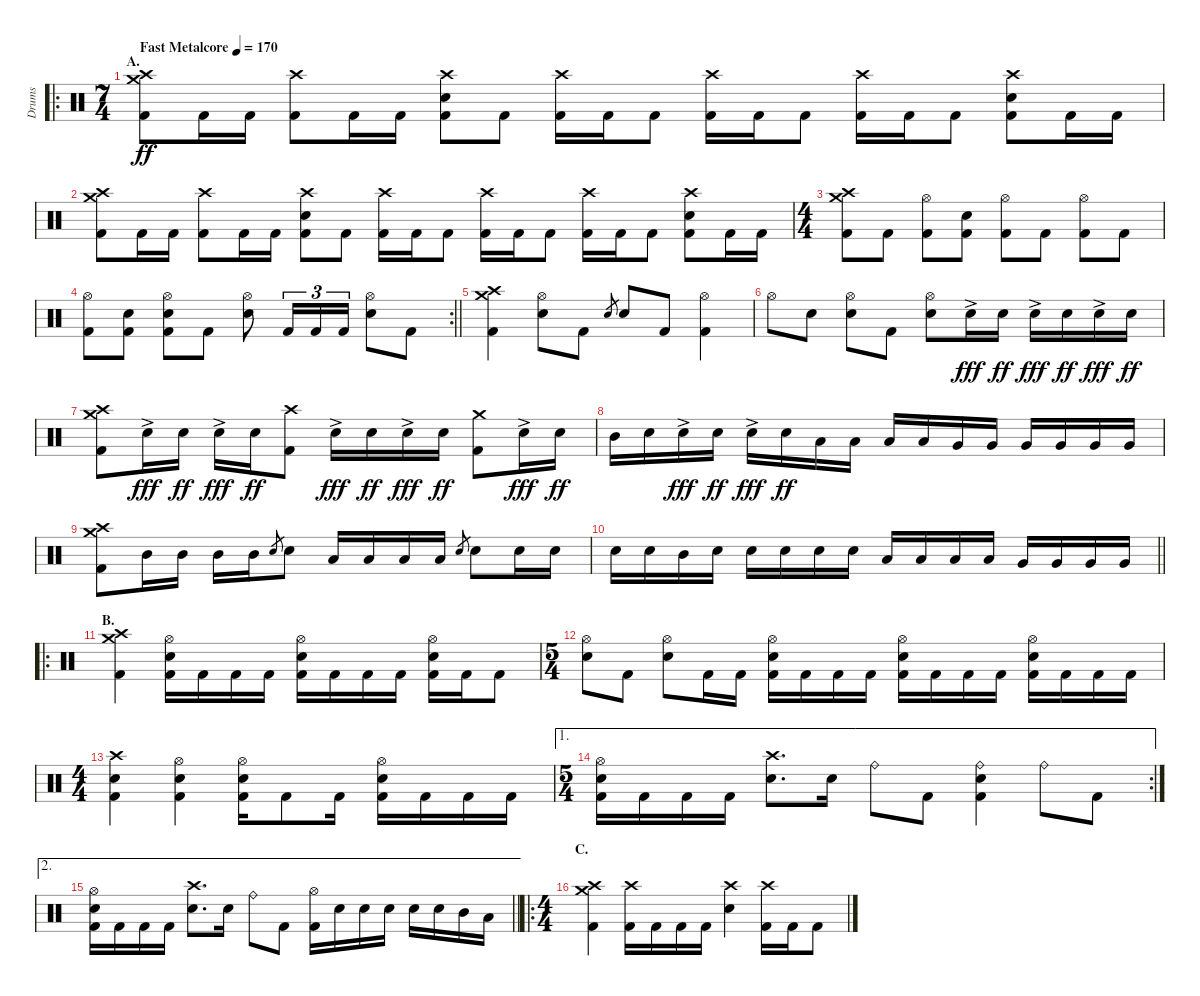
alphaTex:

\track ("Drums" "Drums") {instrument percussion}
\staff {score}
\articulation defaults
\ro
\ts (7 4)
\section ("" "A.")
\tempo (170 "Fast Metalcore")
\clef neutral
\ks c
("Crash medium (hit)" "Crash high (hit)" "Kick (hit) 2").8{dy ff} "Kick (hit) 2".16 "Kick (hit) 2".16 ("Crash high (hit)" "Kick (hit) 2").8 "Kick (hit) 2".16 "Kick (hit) 2".16 ("Crash high (hit)" "Electric Snare (hit)" "Kick (hit) 2").8 "Kick (hit) 2".8 ("Crash high (hit)" "Kick (hit) 2").16 "Kick (hit) 2".16 "Kick (hit) 2".8 ("Crash high (hit)" "Kick (hit) 2").16 "Kick (hit) 2".16 "Kick (hit) 2".8 ("Crash high (hit)" "Kick (hit) 2").16 "Kick (hit) 2".16 "Kick (hit) 2".8 ("Crash high (hit)" "Electric Snare (hit)" "Kick (hit) 2").8 "Kick (hit) 2".16 "Kick (hit) 2".16 |
("Crash medium (hit)" "Crash high (hit)" "Kick (hit) 2").8 "Kick (hit) 2".16 "Kick (hit) 2".16 ("Crash high (hit)" "Kick (hit) 2").8 "Kick (hit) 2".16 "Kick (hit) 2".16 ("Crash high (hit)" "Electric Snare (hit)" "Kick (hit) 2").8 "Kick (hit) 2".8 ("Crash high (hit)" "Kick (hit) 2").16 "Kick (hit) 2".16 "Kick (hit) 2".8 ("Crash high (hit)" "Kick (hit) 2").16 "Kick (hit) 2".16 "Kick (hit) 2".8 ("Crash high (hit)" "Kick (hit) 2").16 "Kick (hit) 2".16 "Kick (hit) 2".8 ("Crash high (hit)" "Electric Snare (hit)" "Kick (hit) 2").8 "Kick (hit) 2".16 "Kick (hit) 2".16 |
\ts (4 4)
("Crash medium (hit)" "Crash high (hit)" "Kick (hit) 2").8 "Kick (hit) 2".8 ("Hi-Hat (open)" "Kick (hit) 2").8 ("Electric Snare (hit)" "Kick (hit) 2").8 ("Hi-Hat (open)" "Kick (hit) 2").8 "Kick (hit) 2".8 ("Hi-Hat (open)" "Kick (hit) 2").8 "Kick (hit) 2".8 |
\rc 2
\barLineRight lightlight
("Hi-Hat (open)" "Kick (hit) 2").8 ("Electric Snare (hit)" "Kick (hit) 2").8 ("Hi-Hat (open)" "Electric Snare (hit)" "Kick (hit) 2").8 "Kick (hit) 2".8 ("Hi-Hat (open)" "Electric Snare (hit)").8 "Kick (hit) 2".16{tu (3 2)} "Kick (hit) 2".16{tu (3 2)} "Kick (hit) 2".16{tu (3 2)} ("Hi-Hat (open)" "Electric Snare (hit)").8 "Kick (hit) 2".8 |
\section ("" "")
("Crash medium (hit)" "Crash high (hit)" "Kick (hit) 2").4 ("Hi-Hat (open)" "Electric Snare (hit)").8 "Kick (hit) 2".8 "Electric Snare (hit)".8{gr} "Electric Snare (hit)".8 "Kick (hit) 2".8 ("Hi-Hat (open)" "Kick (hit) 2").4 |
"Hi-Hat (open)".8 "Electric Snare (hit)".8 ("Hi-Hat (open)" "Electric Snare (hit)").8 "Kick (hit) 2".8 ("Hi-Hat (open)" "Electric Snare (hit)").8 "Electric Snare (hit)"{ac}.16{dy fff} "Electric Snare (hit)".16{dy ff} "Electric Snare (hit)"{ac}.16{dy fff} "Electric Snare (hit)".16{dy ff} "Electric Snare (hit)"{ac}.16{dy fff} "Electric Snare (hit)".16{dy ff} |
("Crash medium (hit)" "Crash high (hit)" "Kick (hit) 2").8 "Electric Snare (hit)"{ac}.16{dy fff} "Electric Snare (hit)".16{dy ff} "Electric Snare (hit)"{ac}.16{dy fff} "Electric Snare (hit)".16{dy ff} ("Crash high (hit)" "Kick (hit) 2").8 "Electric Snare (hit)"{ac}.16{dy fff} "Electric Snare (hit)".16{dy ff} "Electric Snare (hit)"{ac}.16{dy fff} "Electric Snare (hit)".16{dy ff} ("Crash medium (hit)" "Kick (hit) 2").8 "Electric Snare (hit)"{ac}.16{dy fff} "Electric Snare (hit)".16{dy ff} |
"Mid Tom (hit)".16 "Electric Snare (hit)".16 "Electric Snare (hit)"{ac}.16{dy fff} "Electric Snare (hit)".16{dy ff} "Electric Snare (hit)"{ac}.16{dy fff} "Electric Snare (hit)".16{dy ff} "Low Tom (hit)".16 "Low Tom (hit)".16 "Low Tom (hit)".16 "Low Tom (hit)".16 "Very Low Tom (hit)".16 "Very Low Tom (hit)".16 "Very Low Tom (hit)".16 "Very Low Tom (hit)".16 "Very Low Tom (hit)".16 "Very Low Tom (hit)".16 |
("Crash medium (hit)" "Crash high (hit)" "Kick (hit) 2").8 "Mid Tom (hit)".16 "Mid Tom (hit)".16 "Mid Tom (hit)".16 "Mid Tom (hit)".16 "Electric Snare (hit)".8{gr} "Electric Snare (hit)".8 "Low Tom (hit)".16 "Low Tom (hit)".16 "Low Tom (hit)".16 "Low Tom (hit)".16 "Electric Snare (hit)".8{gr} "Electric Snare (hit)".8 "Electric Snare (hit)".16 "Electric Snare (hit)".16 |
\barLineRight lightlight "Electric Snare (hit)".16 "Electric Snare (hit)".16 "Mid Tom (hit)".16 "Electric Snare (hit)".16 "Electric Snare (hit)".16 "Electric Snare (hit)".16 "Electric Snare (hit)".16 "Electric Snare (hit)".16 "Low Tom (hit)".16 "Low Tom (hit)".16 "Low Tom (hit)".16 "Low Tom (hit)".16 "Very Low Tom (hit)".16 "Very Low Tom (hit)".16 "Very Low Tom (hit)".16 "Very Low Tom (hit)".16
|
\ro
\section ("" "B.")
("Crash medium (hit)" "Crash high (hit)" "Kick (hit) 2").4 ("Hi-Hat (open)" "Electric Snare (hit)" "Kick (hit) 2").16 "Kick (hit) 2".16 "Kick (hit) 2".16 "Kick (hit) 2".16 ("Hi-Hat (open)" "Electric Snare (hit)" "Kick (hit) 2").16 "Kick (hit) 2".16 "Kick (hit) 2".16 "Kick (hit) 2".16 ("Hi-Hat (open)" "Electric Snare (hit)" "Kick (hit) 2").16 "Kick (hit) 2".16 "Kick (hit) 2".8 |
\ts (5 4)
("Hi-Hat (open)" "Electric Snare (hit)").8 "Kick (hit) 2".8 ("Hi-Hat (open)" "Electric Snare (hit)").8 "Kick (hit) 2".16 "Kick (hit) 2".16 ("Hi-Hat (open)" "Electric Snare (hit)" "Kick (hit) 2").16 "Kick (hit) 2".16 "Kick (hit) 2".16 "Kick (hit) 2".16 ("Hi-Hat (open)" "Electric Snare (hit)" "Kick (hit) 2").16 "Kick (hit) 2".16 "Kick (hit) 2".16 "Kick (hit) 2".16 ("Hi-Hat (open)" "Electric Snare (hit)" "Kick (hit) 2").16 "Kick (hit) 2".16 "Kick (hit) 2".16 "Kick (hit) 2".16 |
\ts (4 4)
("Crash high (hit)" "Electric Snare (hit)" "Kick (hit) 2").4 ("Hi-Hat (open)" "Electric Snare (hit)" "Kick (hit) 2").4 ("Hi-Hat (open)" "Electric Snare (hit)" "Kick (hit) 2").16 "Kick (hit) 2".8 "Kick (hit) 2".16 ("Hi-Hat (open)" "Electric Snare (hit)" "Kick (hit) 2").16 "Kick (hit) 2".16 "Kick (hit) 2".16 "Kick (hit) 2".16 |
\ae 1
\rc 2
\ts (5 4)
("Hi-Hat (open)" "Electric Snare (hit)" "Kick (hit) 2").16 "Kick (hit) 2".16 "Kick (hit) 2".16 "Kick (hit) 2".16 ("Crash high (hit)" "Electric Snare (hit)").8{d} "Electric Snare (hit)".16 "Ride (bell)".8 "Kick (hit) 2".8 ("Ride (bell)" "Electric Snare (hit)" "Kick (hit) 2").4 "Ride (bell)".8 "Kick (hit) 2".8 |
\ae 2
\barLineRight lightlight
("Hi-Hat (open)" "Electric Snare (hit)" "Kick (hit) 2").16 "Kick (hit) 2".16 "Kick (hit) 2".16 "Kick (hit) 2".16 ("Crash high (hit)" "Electric Snare (hit)").8{d} "Electric Snare (hit)".16 "Ride (bell)".8 "Kick (hit) 2".8 ("Hi-Hat (open)" "Kick (hit) 2").16 "Electric Snare (hit)".16 "Electric Snare (hit)".16 "Electric Snare (hit)".16 "Electric Snare (hit)".16 "Electric Snare (hit)".16 "Mid Tom (hit)".16 "Low Tom (hit)".16 |
\ro
\ts (4 4)
\section ("" "C.")
("Crash medium (hit)" "Crash high (hit)" "Kick (hit) 2").4 ("Crash high (hit)" "Kick (hit) 2").16 "Kick (hit) 2".16 "Kick (hit) 2".16 "Kick (hit) 2".16 ("Crash high (hit)" "Electric Snare (hit)").4 ("Crash high (hit)" "Kick (hit) 2").16 "Kick (hit) 2".16 "Kick (hit) 2".8
